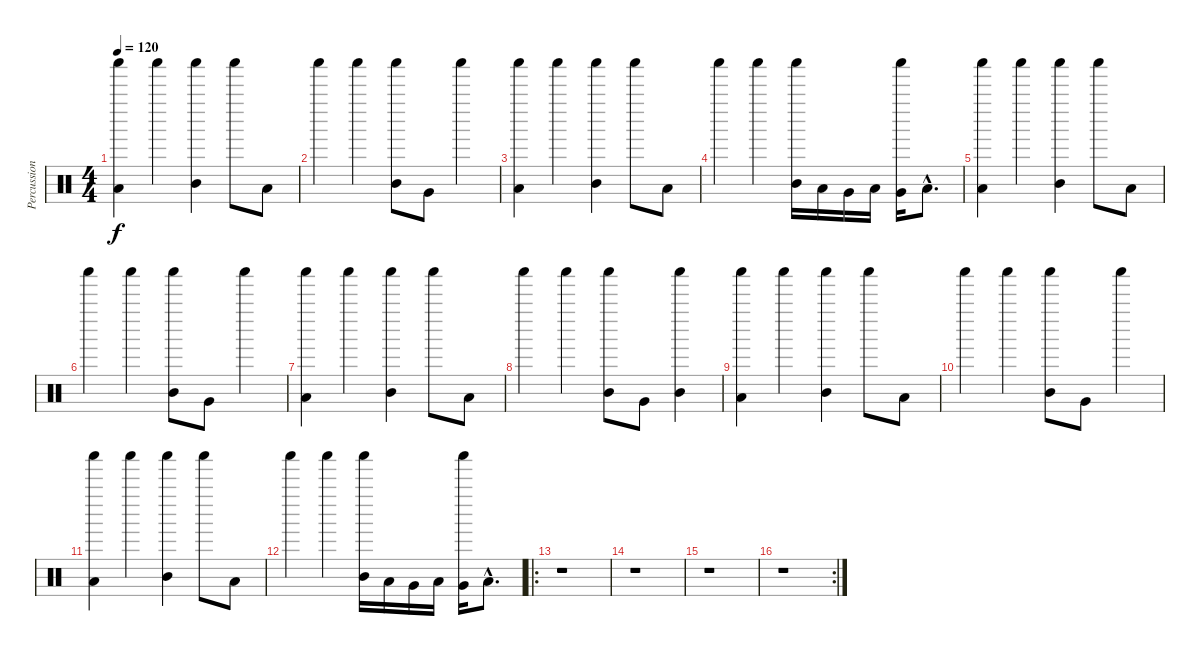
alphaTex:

\track ("Percussion" "Percussion") {instrument percussion}
\staff {score}
\articulation defaults
\ts (4 4)
\tempo 120
\clef neutral
\ks c
("Shaker (hit)" "Low Floor Tom (hit)").4{dy f} "Shaker (hit)".4 ("Shaker (hit)" "Mid Tom (hit)").4 "Shaker (hit)".8 "Low Floor Tom (hit)".8 |
"Shaker (hit)".4 "Shaker (hit)".4 ("Shaker (hit)" "Mid Tom (hit)").8 "Very Low Tom (hit)".8 "Shaker (hit)".4 |
("Shaker (hit)" "Low Floor Tom (hit)").4 "Shaker (hit)".4 ("Shaker (hit)" "Mid Tom (hit)").4 "Shaker (hit)".8 "Low Floor Tom (hit)".8 |
"Shaker (hit)".4 "Shaker (hit)".4 ("Shaker (hit)" "Mid Tom (hit)").16 "Low Tom (hit)".16 "Very Low Tom (hit)".16 "Low Tom (hit)".16 ("Shaker (hit)" "Very Low Tom (hit)").16 "Low Floor Tom (hit)"{hac}.8{d} |
("Shaker (hit)" "Low Floor Tom (hit)").4 "Shaker (hit)".4 ("Shaker (hit)" "Mid Tom (hit)").4 "Shaker (hit)".8 "Low Floor Tom (hit)".8 |
"Shaker (hit)".4 "Shaker (hit)".4 ("Shaker (hit)" "Mid Tom (hit)").8 "Very Low Tom (hit)".8 "Shaker (hit)".4 |
("Shaker (hit)" "Low Floor Tom (hit)").4 "Shaker (hit)".4 ("Shaker (hit)" "Mid Tom (hit)").4 "Shaker (hit)".8 "Low Floor Tom (hit)".8 |
"Shaker (hit)".4 "Shaker (hit)".4 ("Shaker (hit)" "Mid Tom (hit)").8 "Very Low Tom (hit)".8 ("Shaker (hit)" "Mid Tom (hit)").4 |
("Shaker (hit)" "Low Floor Tom (hit)").4 "Shaker (hit)".4 ("Shaker (hit)" "Mid Tom (hit)").4 "Shaker (hit)".8 "Low Floor Tom (hit)".8 |
"Shaker (hit)".4 "Shaker (hit)".4 ("Shaker (hit)" "Mid Tom (hit)").8 "Very Low Tom (hit)".8 "Shaker (hit)".4 |
("Shaker (hit)" "Low Floor Tom (hit)").4 "Shaker (hit)".4 ("Shaker (hit)" "Mid Tom (hit)").4 "Shaker (hit)".8 "Low Floor Tom (hit)".8 |
"Shaker (hit)".4 "Shaker (hit)".4 ("Shaker (hit)" "Mid Tom (hit)").16 "Low Tom (hit)".16 "Very Low Tom (hit)".16 "Low Tom (hit)".16 ("Shaker (hit)" "Very Low Tom (hit)").16 "Low Floor Tom (hit)"{hac}.8{d} |
\ro
r.1 |
r.1 |
r.1 |
\rc 2
r.1
